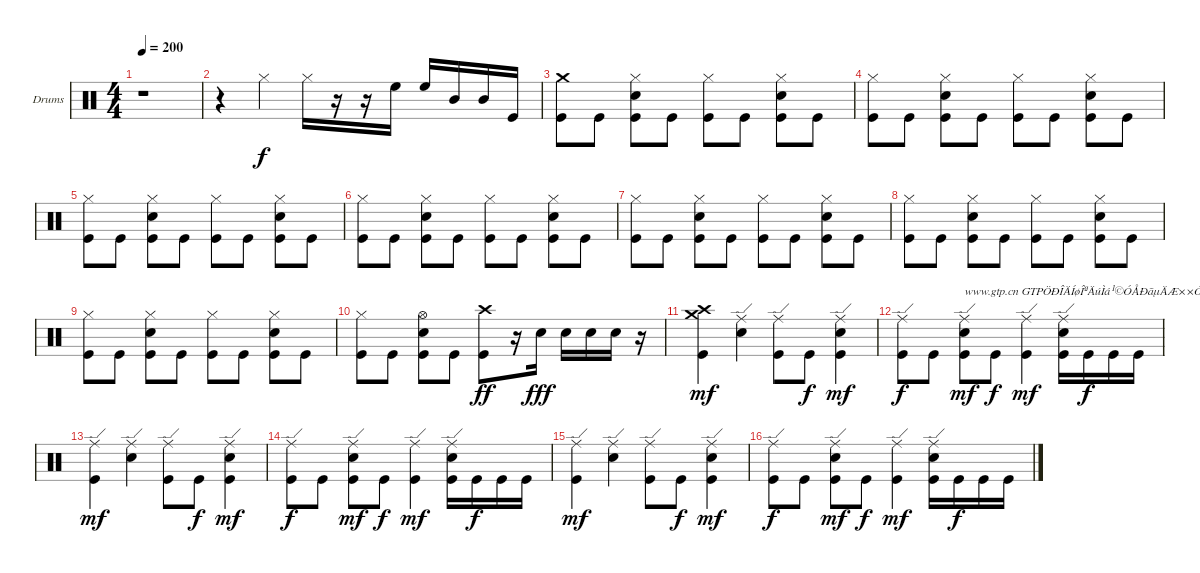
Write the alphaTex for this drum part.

\bracketExtendMode groupsimilarinstruments
\firstSystemTrackNameOrientation horizontal
\otherSystemsTrackNameOrientation horizontal
\track ("Drumkit" "Drums") {instrument percussion}
\staff {score}
\articulation defaults
\ts (4 4)
\tempo 200
\clef neutral
\ks c
r.1{dy fff} |
r.4 "Hi-Hat (closed)".4{dy f} "Hi-Hat (closed)".16 r.16 r.16 "High Floor Tom (hit)".16 "High Floor Tom (hit)".16 "Mid Tom (hit)".16 "Mid Tom (hit)".16 "Kick (hit)".16 |
("Crash medium (hit)" "Kick (hit)").8 "Kick (hit)".8 ("Hi-Hat (closed)" "Snare (hit) 2" "Kick (hit)").8 "Kick (hit)".8 ("Hi-Hat (closed)" "Kick (hit)").8 "Kick (hit)".8 ("Hi-Hat (closed)" "Snare (hit) 2" "Kick (hit)").8 "Kick (hit)".8 |
("Hi-Hat (closed)" "Kick (hit)").8 "Kick (hit)".8 ("Hi-Hat (closed)" "Snare (hit) 2" "Kick (hit)").8 "Kick (hit)".8 ("Hi-Hat (closed)" "Kick (hit)").8 "Kick (hit)".8 ("Hi-Hat (closed)" "Snare (hit) 2" "Kick (hit)").8 "Kick (hit)".8 |
("Hi-Hat (closed)" "Kick (hit)").8 "Kick (hit)".8 ("Hi-Hat (closed)" "Snare (hit) 2" "Kick (hit)").8 "Kick (hit)".8 ("Hi-Hat (closed)" "Kick (hit)").8 "Kick (hit)".8 ("Hi-Hat (closed)" "Snare (hit) 2" "Kick (hit)").8 "Kick (hit)".8 |
("Hi-Hat (closed)" "Kick (hit)").8 "Kick (hit)".8 ("Hi-Hat (closed)" "Snare (hit) 2" "Kick (hit)").8 "Kick (hit)".8 ("Hi-Hat (closed)" "Kick (hit)").8 "Kick (hit)".8 ("Hi-Hat (closed)" "Snare (hit) 2" "Kick (hit)").8 "Kick (hit)".8 |
("Hi-Hat (closed)" "Kick (hit)").8 "Kick (hit)".8 ("Hi-Hat (closed)" "Snare (hit) 2" "Kick (hit)").8 "Kick (hit)".8 ("Hi-Hat (closed)" "Kick (hit)").8 "Kick (hit)".8 ("Hi-Hat (closed)" "Snare (hit) 2" "Kick (hit)").8 "Kick (hit)".8 |
("Hi-Hat (closed)" "Kick (hit)").8 "Kick (hit)".8 ("Hi-Hat (closed)" "Snare (hit) 2" "Kick (hit)").8 "Kick (hit)".8 ("Hi-Hat (closed)" "Kick (hit)").8 "Kick (hit)".8 ("Hi-Hat (closed)" "Snare (hit) 2" "Kick (hit)").8 "Kick (hit)".8 |
("Hi-Hat (closed)" "Kick (hit)").8 "Kick (hit)".8 ("Hi-Hat (closed)" "Snare (hit) 2" "Kick (hit)").8 "Kick (hit)".8 ("Hi-Hat (closed)" "Kick (hit)").8 "Kick (hit)".8 ("Hi-Hat (closed)" "Snare (hit) 2" "Kick (hit)").8 "Kick (hit)".8 |
("Hi-Hat (closed)" "Kick (hit)").8 "Kick (hit)".8 ("Hi-Hat (open)" "Snare (hit) 2" "Kick (hit)").8 "Kick (hit)".8 ("Crash high (hit)" "Kick (hit)").8{dy ff} r.16 "Snare (hit) 2".16{dy fff} "Snare (hit) 2".16 "Snare (hit) 2".16 "Snare (hit) 2".16 r.16 |
("Crash medium (hit)" "Crash high (hit)" "Kick (hit)").4{dy mf} ("Ride (edge)" "Snare (hit) 2").4 ("Ride (edge)" "Kick (hit)").8 "Kick (hit)".8{dy f} ("Ride (edge)" "Snare (hit) 2" "Kick (hit)").4{dy mf} |
("Ride (edge)" "Kick (hit)").8{dy f} "Kick (hit)".8 ("Ride (edge)" "Snare (hit) 2" "Kick (hit)").8{txt "www.gtp.cn GTPÖÐÎÄÍøÎªÄúÌá¹©ÓÅÐãµÄÆ××Ó" dy mf} "Kick (hit)".8{dy f} ("Ride (edge)" "Kick (hit)").4{dy mf} ("Ride (edge)" "Snare (hit) 2" "Kick (hit)").16 "Kick (hit)".16{dy f} "Kick (hit)".16 "Kick (hit)".16 |
("Ride (edge)" "Kick (hit)").4{dy mf} ("Ride (edge)" "Snare (hit) 2").4 ("Ride (edge)" "Kick (hit)").8 "Kick (hit)".8{dy f} ("Ride (edge)" "Snare (hit) 2" "Kick (hit)").4{dy mf} |
("Ride (edge)" "Kick (hit)").8{dy f} "Kick (hit)".8 ("Ride (edge)" "Snare (hit) 2" "Kick (hit)").8{dy mf} "Kick (hit)".8{dy f} ("Ride (edge)" "Kick (hit)").4{dy mf} ("Ride (edge)" "Snare (hit) 2" "Kick (hit)").16 "Kick (hit)".16{dy f} "Kick (hit)".16 "Kick (hit)".16 |
("Ride (edge)" "Kick (hit)").4{dy mf} ("Ride (edge)" "Snare (hit) 2").4 ("Ride (edge)" "Kick (hit)").8 "Kick (hit)".8{dy f} ("Ride (edge)" "Snare (hit) 2" "Kick (hit)").4{dy mf} |
("Ride (edge)" "Kick (hit)").8{dy f} "Kick (hit)".8 ("Ride (edge)" "Snare (hit) 2" "Kick (hit)").8{dy mf} "Kick (hit)".8{dy f} ("Ride (edge)" "Kick (hit)").4{dy mf} ("Ride (edge)" "Snare (hit) 2" "Kick (hit)").16 "Kick (hit)".16{dy f} "Kick (hit)".16 "Kick (hit)".16
